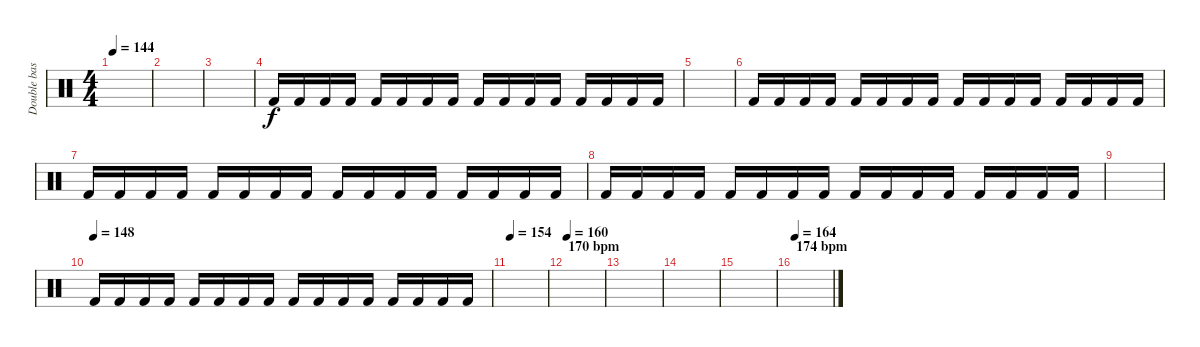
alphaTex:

\track ("Double bass drum" "Double bas") {instrument percussion}
\staff {score}
\articulation defaults
\ts (4 4)
\tempo 144
\clef neutral
\ks c
|
|
|
"Kick (hit) 2".16 "Kick (hit) 2".16 "Kick (hit) 2".16 "Kick (hit) 2".16 "Kick (hit) 2".16 "Kick (hit) 2".16 "Kick (hit) 2".16 "Kick (hit) 2".16 "Kick (hit) 2".16 "Kick (hit) 2".16 "Kick (hit) 2".16 "Kick (hit) 2".16 "Kick (hit) 2".16 "Kick (hit) 2".16 "Kick (hit) 2".16 "Kick (hit) 2".16 |
|
"Kick (hit) 2".16 "Kick (hit) 2".16 "Kick (hit) 2".16 "Kick (hit) 2".16 "Kick (hit) 2".16 "Kick (hit) 2".16 "Kick (hit) 2".16 "Kick (hit) 2".16 "Kick (hit) 2".16 "Kick (hit) 2".16 "Kick (hit) 2".16 "Kick (hit) 2".16 "Kick (hit) 2".16 "Kick (hit) 2".16 "Kick (hit) 2".16 "Kick (hit) 2".16 |
"Kick (hit) 2".16 "Kick (hit) 2".16 "Kick (hit) 2".16 "Kick (hit) 2".16 "Kick (hit) 2".16 "Kick (hit) 2".16 "Kick (hit) 2".16 "Kick (hit) 2".16 "Kick (hit) 2".16 "Kick (hit) 2".16 "Kick (hit) 2".16 "Kick (hit) 2".16 "Kick (hit) 2".16 "Kick (hit) 2".16 "Kick (hit) 2".16 "Kick (hit) 2".16 |
"Kick (hit) 2".16 "Kick (hit) 2".16 "Kick (hit) 2".16 "Kick (hit) 2".16 "Kick (hit) 2".16 "Kick (hit) 2".16 "Kick (hit) 2".16 "Kick (hit) 2".16 "Kick (hit) 2".16 "Kick (hit) 2".16 "Kick (hit) 2".16 "Kick (hit) 2".16 "Kick (hit) 2".16 "Kick (hit) 2".16 "Kick (hit) 2".16 "Kick (hit) 2".16 |
|
\tempo (148)
"Kick (hit) 2".16 "Kick (hit) 2".16 "Kick (hit) 2".16 "Kick (hit) 2".16 "Kick (hit) 2".16 "Kick (hit) 2".16 "Kick (hit) 2".16 "Kick (hit) 2".16 "Kick (hit) 2".16 "Kick (hit) 2".16 "Kick (hit) 2".16 "Kick (hit) 2".16 "Kick (hit) 2".16 "Kick (hit) 2".16 "Kick (hit) 2".16 "Kick (hit) 2".16 |
\tempo 154
|
\section ("" "170 bpm")
\tempo 160
|
|
|
|
\section ("" "174 bpm")
\tempo 164
